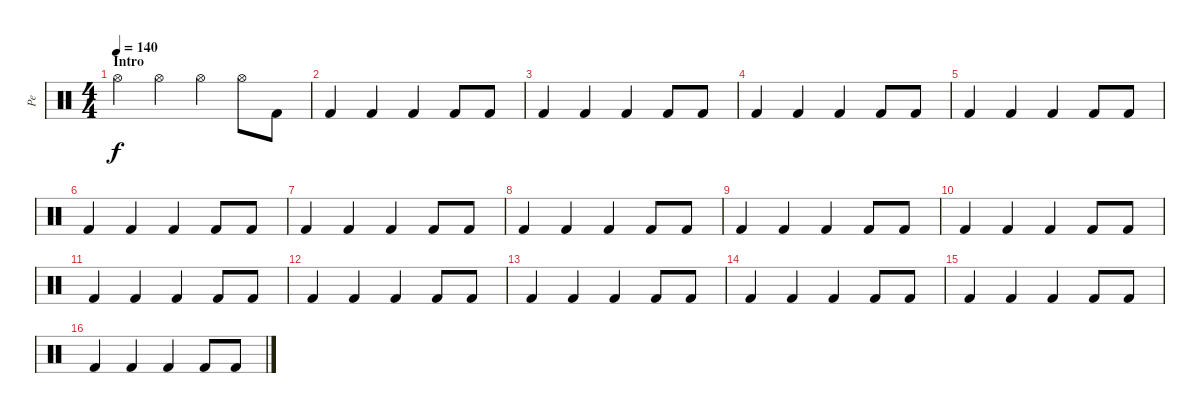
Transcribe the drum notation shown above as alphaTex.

\track ("Pe" "Pe") {instrument percussion}
\staff {score}
\articulation defaults
\ts (4 4)
\section ("" "Intro")
\tempo 140
\clef neutral
\ks c "Hi-Hat (open)".4{dy f} "Hi-Hat (open)".4 "Hi-Hat (open)".4 "Hi-Hat (open)".8 "Kick (hit) 2".8
|
"Kick (hit) 2".4 "Kick (hit) 2".4 "Kick (hit) 2".4 "Kick (hit) 2".8 "Kick (hit) 2".8 |
"Kick (hit) 2".4 "Kick (hit) 2".4 "Kick (hit) 2".4 "Kick (hit) 2".8 "Kick (hit) 2".8 |
"Kick (hit) 2".4 "Kick (hit) 2".4 "Kick (hit) 2".4 "Kick (hit) 2".8 "Kick (hit) 2".8 |
"Kick (hit) 2".4 "Kick (hit) 2".4 "Kick (hit) 2".4 "Kick (hit) 2".8 "Kick (hit) 2".8 |
"Kick (hit) 2".4 "Kick (hit) 2".4 "Kick (hit) 2".4 "Kick (hit) 2".8 "Kick (hit) 2".8 |
"Kick (hit) 2".4 "Kick (hit) 2".4 "Kick (hit) 2".4 "Kick (hit) 2".8 "Kick (hit) 2".8 |
"Kick (hit) 2".4 "Kick (hit) 2".4 "Kick (hit) 2".4 "Kick (hit) 2".8 "Kick (hit) 2".8 |
"Kick (hit) 2".4 "Kick (hit) 2".4 "Kick (hit) 2".4 "Kick (hit) 2".8 "Kick (hit) 2".8 |
"Kick (hit) 2".4 "Kick (hit) 2".4 "Kick (hit) 2".4 "Kick (hit) 2".8 "Kick (hit) 2".8 |
"Kick (hit) 2".4 "Kick (hit) 2".4 "Kick (hit) 2".4 "Kick (hit) 2".8 "Kick (hit) 2".8 |
"Kick (hit) 2".4 "Kick (hit) 2".4 "Kick (hit) 2".4 "Kick (hit) 2".8 "Kick (hit) 2".8 |
"Kick (hit) 2".4 "Kick (hit) 2".4 "Kick (hit) 2".4 "Kick (hit) 2".8 "Kick (hit) 2".8 |
"Kick (hit) 2".4 "Kick (hit) 2".4 "Kick (hit) 2".4 "Kick (hit) 2".8 "Kick (hit) 2".8 |
"Kick (hit) 2".4 "Kick (hit) 2".4 "Kick (hit) 2".4 "Kick (hit) 2".8 "Kick (hit) 2".8 |
"Kick (hit) 2".4 "Kick (hit) 2".4 "Kick (hit) 2".4 "Kick (hit) 2".8 "Kick (hit) 2".8
